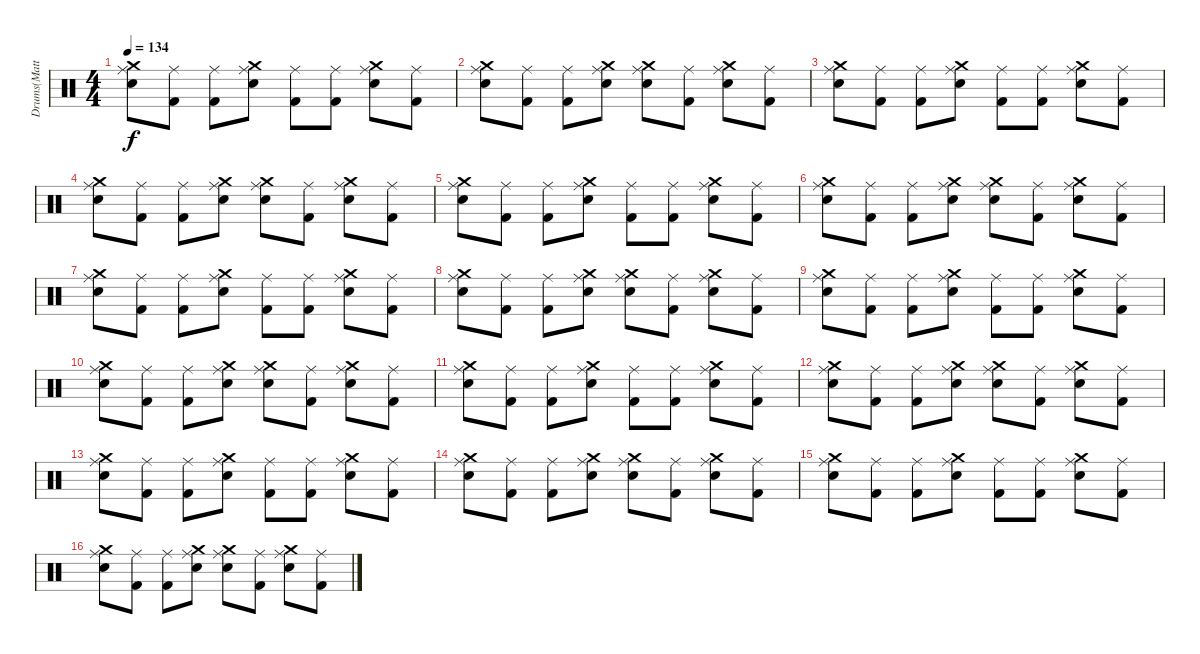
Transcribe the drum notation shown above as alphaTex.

\track ("Drums(Matthias)" "Drums(Matt") {instrument percussion}
\staff {score}
\articulation defaults
\ts (4 4)
\tempo 134
\clef neutral
\ks c
("Ride (middle)" "Crash medium (hit)" "Snare (hit) 2").8{dy f} ("Ride (middle)" "Kick (hit) 2").8 ("Ride (middle)" "Kick (hit) 2").8 ("Ride (middle)" "Crash medium (hit)" "Snare (hit) 2").8 ("Ride (middle)" "Kick (hit) 2").8 ("Ride (middle)" "Kick (hit) 2").8 ("Ride (middle)" "Crash medium (hit)" "Snare (hit) 2").8 ("Ride (middle)" "Kick (hit) 2").8 |
("Ride (middle)" "Crash medium (hit)" "Snare (hit) 2").8 ("Ride (middle)" "Kick (hit) 2").8 ("Ride (middle)" "Kick (hit) 2").8 ("Ride (middle)" "Crash medium (hit)" "Snare (hit) 2").8 ("Ride (middle)" "Crash medium (hit)" "Snare (hit) 2").8 ("Ride (middle)" "Kick (hit) 2").8 ("Ride (middle)" "Crash medium (hit)" "Snare (hit) 2").8 ("Ride (middle)" "Kick (hit) 2").8 |
("Ride (middle)" "Crash medium (hit)" "Snare (hit) 2").8 ("Ride (middle)" "Kick (hit) 2").8 ("Ride (middle)" "Kick (hit) 2").8 ("Ride (middle)" "Crash medium (hit)" "Snare (hit) 2").8 ("Ride (middle)" "Kick (hit) 2").8 ("Ride (middle)" "Kick (hit) 2").8 ("Ride (middle)" "Crash medium (hit)" "Snare (hit) 2").8 ("Ride (middle)" "Kick (hit) 2").8 |
("Ride (middle)" "Crash medium (hit)" "Snare (hit) 2").8 ("Ride (middle)" "Kick (hit) 2").8 ("Ride (middle)" "Kick (hit) 2").8 ("Ride (middle)" "Crash medium (hit)" "Snare (hit) 2").8 ("Ride (middle)" "Crash medium (hit)" "Snare (hit) 2").8 ("Ride (middle)" "Kick (hit) 2").8 ("Ride (middle)" "Crash medium (hit)" "Snare (hit) 2").8 ("Ride (middle)" "Kick (hit) 2").8 |
("Ride (middle)" "Crash medium (hit)" "Snare (hit) 2").8 ("Ride (middle)" "Kick (hit) 2").8 ("Ride (middle)" "Kick (hit) 2").8 ("Ride (middle)" "Crash medium (hit)" "Snare (hit) 2").8 ("Ride (middle)" "Kick (hit) 2").8 ("Ride (middle)" "Kick (hit) 2").8 ("Ride (middle)" "Crash medium (hit)" "Snare (hit) 2").8 ("Ride (middle)" "Kick (hit) 2").8 |
("Ride (middle)" "Crash medium (hit)" "Snare (hit) 2").8 ("Ride (middle)" "Kick (hit) 2").8 ("Ride (middle)" "Kick (hit) 2").8 ("Ride (middle)" "Crash medium (hit)" "Snare (hit) 2").8 ("Ride (middle)" "Crash medium (hit)" "Snare (hit) 2").8 ("Ride (middle)" "Kick (hit) 2").8 ("Ride (middle)" "Crash medium (hit)" "Snare (hit) 2").8 ("Ride (middle)" "Kick (hit) 2").8 |
("Ride (middle)" "Crash medium (hit)" "Snare (hit) 2").8 ("Ride (middle)" "Kick (hit) 2").8 ("Ride (middle)" "Kick (hit) 2").8 ("Ride (middle)" "Crash medium (hit)" "Snare (hit) 2").8 ("Ride (middle)" "Kick (hit) 2").8 ("Ride (middle)" "Kick (hit) 2").8 ("Ride (middle)" "Crash medium (hit)" "Snare (hit) 2").8 ("Ride (middle)" "Kick (hit) 2").8 |
("Ride (middle)" "Crash medium (hit)" "Snare (hit) 2").8 ("Ride (middle)" "Kick (hit) 2").8 ("Ride (middle)" "Kick (hit) 2").8 ("Ride (middle)" "Crash medium (hit)" "Snare (hit) 2").8 ("Ride (middle)" "Crash medium (hit)" "Snare (hit) 2").8 ("Ride (middle)" "Kick (hit) 2").8 ("Ride (middle)" "Crash medium (hit)" "Snare (hit) 2").8 ("Ride (middle)" "Kick (hit) 2").8 |
("Ride (middle)" "Crash medium (hit)" "Snare (hit) 2").8 ("Ride (middle)" "Kick (hit) 2").8 ("Ride (middle)" "Kick (hit) 2").8 ("Ride (middle)" "Crash medium (hit)" "Snare (hit) 2").8 ("Ride (middle)" "Kick (hit) 2").8 ("Ride (middle)" "Kick (hit) 2").8 ("Ride (middle)" "Crash medium (hit)" "Snare (hit) 2").8 ("Ride (middle)" "Kick (hit) 2").8 |
("Ride (middle)" "Crash medium (hit)" "Snare (hit) 2").8 ("Ride (middle)" "Kick (hit) 2").8 ("Ride (middle)" "Kick (hit) 2").8 ("Ride (middle)" "Crash medium (hit)" "Snare (hit) 2").8 ("Ride (middle)" "Crash medium (hit)" "Snare (hit) 2").8 ("Ride (middle)" "Kick (hit) 2").8 ("Ride (middle)" "Crash medium (hit)" "Snare (hit) 2").8 ("Ride (middle)" "Kick (hit) 2").8 |
("Ride (middle)" "Crash medium (hit)" "Snare (hit) 2").8 ("Ride (middle)" "Kick (hit) 2").8 ("Ride (middle)" "Kick (hit) 2").8 ("Ride (middle)" "Crash medium (hit)" "Snare (hit) 2").8 ("Ride (middle)" "Kick (hit) 2").8 ("Ride (middle)" "Kick (hit) 2").8 ("Ride (middle)" "Crash medium (hit)" "Snare (hit) 2").8 ("Ride (middle)" "Kick (hit) 2").8 |
("Ride (middle)" "Crash medium (hit)" "Snare (hit) 2").8 ("Ride (middle)" "Kick (hit) 2").8 ("Ride (middle)" "Kick (hit) 2").8 ("Ride (middle)" "Crash medium (hit)" "Snare (hit) 2").8 ("Ride (middle)" "Crash medium (hit)" "Snare (hit) 2").8 ("Ride (middle)" "Kick (hit) 2").8 ("Ride (middle)" "Crash medium (hit)" "Snare (hit) 2").8 ("Ride (middle)" "Kick (hit) 2").8 |
("Ride (middle)" "Crash medium (hit)" "Snare (hit) 2").8 ("Ride (middle)" "Kick (hit) 2").8 ("Ride (middle)" "Kick (hit) 2").8 ("Ride (middle)" "Crash medium (hit)" "Snare (hit) 2").8 ("Ride (middle)" "Kick (hit) 2").8 ("Ride (middle)" "Kick (hit) 2").8 ("Ride (middle)" "Crash medium (hit)" "Snare (hit) 2").8 ("Ride (middle)" "Kick (hit) 2").8 |
("Ride (middle)" "Crash medium (hit)" "Snare (hit) 2").8 ("Ride (middle)" "Kick (hit) 2").8 ("Ride (middle)" "Kick (hit) 2").8 ("Ride (middle)" "Crash medium (hit)" "Snare (hit) 2").8 ("Ride (middle)" "Crash medium (hit)" "Snare (hit) 2").8 ("Ride (middle)" "Kick (hit) 2").8 ("Ride (middle)" "Crash medium (hit)" "Snare (hit) 2").8 ("Ride (middle)" "Kick (hit) 2").8 |
("Ride (middle)" "Crash medium (hit)" "Snare (hit) 2").8 ("Ride (middle)" "Kick (hit) 2").8 ("Ride (middle)" "Kick (hit) 2").8 ("Ride (middle)" "Crash medium (hit)" "Snare (hit) 2").8 ("Ride (middle)" "Kick (hit) 2").8 ("Ride (middle)" "Kick (hit) 2").8 ("Ride (middle)" "Crash medium (hit)" "Snare (hit) 2").8 ("Ride (middle)" "Kick (hit) 2").8 |
("Ride (middle)" "Crash medium (hit)" "Snare (hit) 2").8 ("Ride (middle)" "Kick (hit) 2").8 ("Ride (middle)" "Kick (hit) 2").8 ("Ride (middle)" "Crash medium (hit)" "Snare (hit) 2").8 ("Ride (middle)" "Crash medium (hit)" "Snare (hit) 2").8 ("Ride (middle)" "Kick (hit) 2").8 ("Ride (middle)" "Crash medium (hit)" "Snare (hit) 2").8 ("Ride (middle)" "Kick (hit) 2").8
